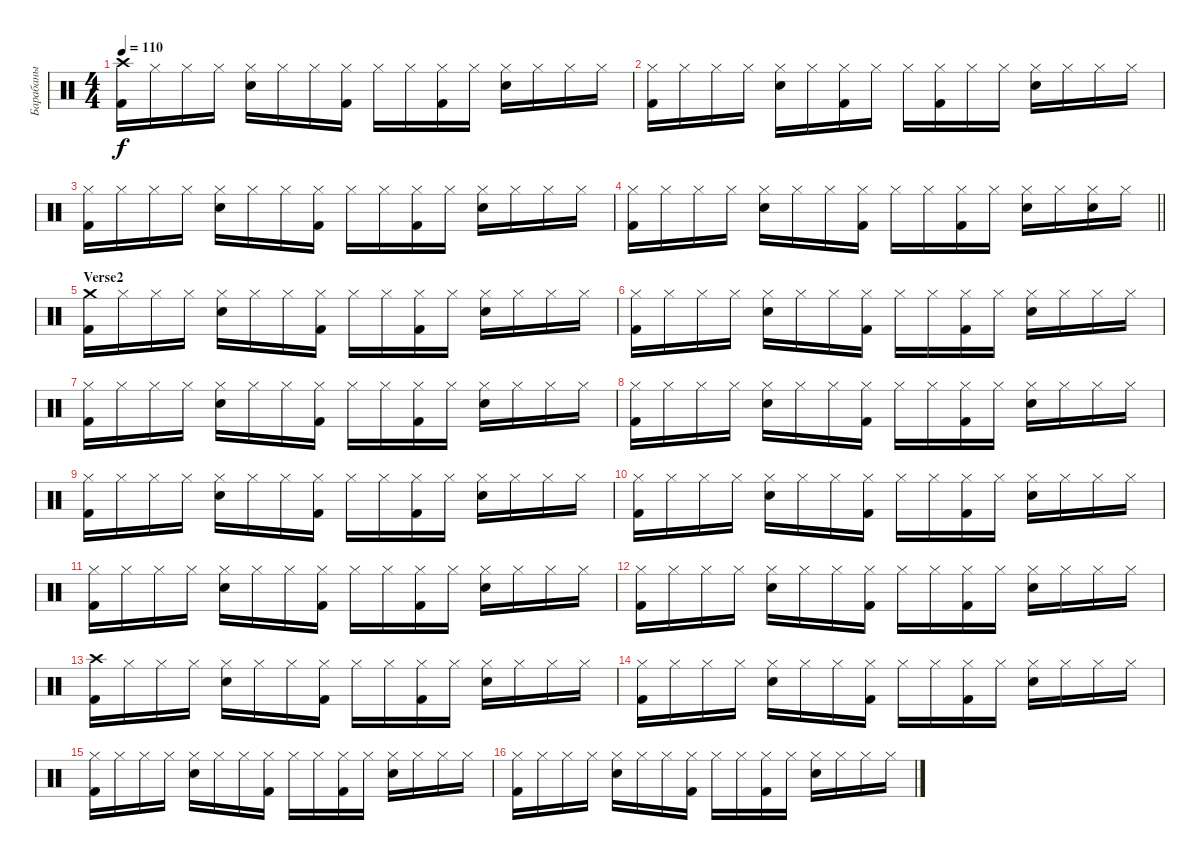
\track ("Барабаны" "Барабаны") {instrument percussion}
\staff {score}
\articulation defaults
\ts (4 4)
\tempo 110
\clef neutral
\ks c
("Crash high (hit)" "Kick (hit) 2").16{dy f} "Hi-Hat (closed)".16 "Hi-Hat (closed)".16 "Hi-Hat (closed)".16 ("Hi-Hat (closed)" "Snare (hit) 2").16 "Hi-Hat (closed)".16 "Hi-Hat (closed)".16 ("Hi-Hat (closed)" "Kick (hit) 2").16 "Hi-Hat (closed)".16 "Hi-Hat (closed)".16 ("Hi-Hat (closed)" "Kick (hit) 2").16 "Hi-Hat (closed)".16 ("Hi-Hat (closed)" "Snare (hit) 2").16 "Hi-Hat (closed)".16 "Hi-Hat (closed)".16 "Hi-Hat (closed)".16 |
("Hi-Hat (closed)" "Kick (hit) 2").16 "Hi-Hat (closed)".16 "Hi-Hat (closed)".16 "Hi-Hat (closed)".16 ("Hi-Hat (closed)" "Snare (hit) 2").16 "Hi-Hat (closed)".16 ("Hi-Hat (closed)" "Kick (hit) 2").16 "Hi-Hat (closed)".16 "Hi-Hat (closed)".16 ("Hi-Hat (closed)" "Kick (hit) 2").16 "Hi-Hat (closed)".16 "Hi-Hat (closed)".16 ("Hi-Hat (closed)" "Snare (hit) 2").16 "Hi-Hat (closed)".16 "Hi-Hat (closed)".16 "Hi-Hat (closed)".16 |
("Hi-Hat (closed)" "Kick (hit) 2").16 "Hi-Hat (closed)".16 "Hi-Hat (closed)".16 "Hi-Hat (closed)".16 ("Hi-Hat (closed)" "Snare (hit) 2").16 "Hi-Hat (closed)".16 "Hi-Hat (closed)".16 ("Hi-Hat (closed)" "Kick (hit) 2").16 "Hi-Hat (closed)".16 "Hi-Hat (closed)".16 ("Hi-Hat (closed)" "Kick (hit) 2").16 "Hi-Hat (closed)".16 ("Hi-Hat (closed)" "Snare (hit) 2").16 "Hi-Hat (closed)".16 "Hi-Hat (closed)".16 "Hi-Hat (closed)".16 |
\barLineRight lightlight
("Hi-Hat (closed)" "Kick (hit) 2").16 "Hi-Hat (closed)".16 "Hi-Hat (closed)".16 "Hi-Hat (closed)".16 ("Hi-Hat (closed)" "Snare (hit) 2").16 "Hi-Hat (closed)".16 "Hi-Hat (closed)".16 ("Hi-Hat (closed)" "Kick (hit) 2").16 "Hi-Hat (closed)".16 "Hi-Hat (closed)".16 ("Hi-Hat (closed)" "Kick (hit) 2").16 "Hi-Hat (closed)".16 ("Hi-Hat (closed)" "Snare (hit) 2").16 "Hi-Hat (closed)".16 ("Hi-Hat (closed)" "Snare (hit) 2").16 "Hi-Hat (closed)".16 |
\section ("" "Verse2")
("Crash medium (hit)" "Kick (hit) 2").16 "Hi-Hat (closed)".16 "Hi-Hat (closed)".16 "Hi-Hat (closed)".16 ("Hi-Hat (closed)" "Snare (hit) 2").16 "Hi-Hat (closed)".16 "Hi-Hat (closed)".16 ("Hi-Hat (closed)" "Kick (hit) 2").16 "Hi-Hat (closed)".16 "Hi-Hat (closed)".16 ("Hi-Hat (closed)" "Kick (hit) 2").16 "Hi-Hat (closed)".16 ("Hi-Hat (closed)" "Snare (hit) 2").16 "Hi-Hat (closed)".16 "Hi-Hat (closed)".16 "Hi-Hat (closed)".16 |
("Hi-Hat (closed)" "Kick (hit) 2").16 "Hi-Hat (closed)".16 "Hi-Hat (closed)".16 "Hi-Hat (closed)".16 ("Hi-Hat (closed)" "Snare (hit) 2").16 "Hi-Hat (closed)".16 "Hi-Hat (closed)".16 ("Hi-Hat (closed)" "Kick (hit) 2").16 "Hi-Hat (closed)".16 "Hi-Hat (closed)".16 ("Hi-Hat (closed)" "Kick (hit) 2").16 "Hi-Hat (closed)".16 ("Hi-Hat (closed)" "Snare (hit) 2").16 "Hi-Hat (closed)".16 "Hi-Hat (closed)".16 "Hi-Hat (closed)".16 |
("Hi-Hat (closed)" "Kick (hit) 2").16 "Hi-Hat (closed)".16 "Hi-Hat (closed)".16 "Hi-Hat (closed)".16 ("Hi-Hat (closed)" "Snare (hit) 2").16 "Hi-Hat (closed)".16 "Hi-Hat (closed)".16 ("Hi-Hat (closed)" "Kick (hit) 2").16 "Hi-Hat (closed)".16 "Hi-Hat (closed)".16 ("Hi-Hat (closed)" "Kick (hit) 2").16 "Hi-Hat (closed)".16 ("Hi-Hat (closed)" "Snare (hit) 2").16 "Hi-Hat (closed)".16 "Hi-Hat (closed)".16 "Hi-Hat (closed)".16 |
("Hi-Hat (closed)" "Kick (hit) 2").16 "Hi-Hat (closed)".16 "Hi-Hat (closed)".16 "Hi-Hat (closed)".16 ("Hi-Hat (closed)" "Snare (hit) 2").16 "Hi-Hat (closed)".16 "Hi-Hat (closed)".16 ("Hi-Hat (closed)" "Kick (hit) 2").16 "Hi-Hat (closed)".16 "Hi-Hat (closed)".16 ("Hi-Hat (closed)" "Kick (hit) 2").16 "Hi-Hat (closed)".16 ("Hi-Hat (closed)" "Snare (hit) 2").16 "Hi-Hat (closed)".16 "Hi-Hat (closed)".16 "Hi-Hat (closed)".16 |
("Hi-Hat (closed)" "Kick (hit) 2").16 "Hi-Hat (closed)".16 "Hi-Hat (closed)".16 "Hi-Hat (closed)".16 ("Hi-Hat (closed)" "Snare (hit) 2").16 "Hi-Hat (closed)".16 "Hi-Hat (closed)".16 ("Hi-Hat (closed)" "Kick (hit) 2").16 "Hi-Hat (closed)".16 "Hi-Hat (closed)".16 ("Hi-Hat (closed)" "Kick (hit) 2").16 "Hi-Hat (closed)".16 ("Hi-Hat (closed)" "Snare (hit) 2").16 "Hi-Hat (closed)".16 "Hi-Hat (closed)".16 "Hi-Hat (closed)".16 |
("Hi-Hat (closed)" "Kick (hit) 2").16 "Hi-Hat (closed)".16 "Hi-Hat (closed)".16 "Hi-Hat (closed)".16 ("Hi-Hat (closed)" "Snare (hit) 2").16 "Hi-Hat (closed)".16 "Hi-Hat (closed)".16 ("Hi-Hat (closed)" "Kick (hit) 2").16 "Hi-Hat (closed)".16 "Hi-Hat (closed)".16 ("Hi-Hat (closed)" "Kick (hit) 2").16 "Hi-Hat (closed)".16 ("Hi-Hat (closed)" "Snare (hit) 2").16 "Hi-Hat (closed)".16 "Hi-Hat (closed)".16 "Hi-Hat (closed)".16 |
("Hi-Hat (closed)" "Kick (hit) 2").16 "Hi-Hat (closed)".16 "Hi-Hat (closed)".16 "Hi-Hat (closed)".16 ("Hi-Hat (closed)" "Snare (hit) 2").16 "Hi-Hat (closed)".16 "Hi-Hat (closed)".16 ("Hi-Hat (closed)" "Kick (hit) 2").16 "Hi-Hat (closed)".16 "Hi-Hat (closed)".16 ("Hi-Hat (closed)" "Kick (hit) 2").16 "Hi-Hat (closed)".16 ("Hi-Hat (closed)" "Snare (hit) 2").16 "Hi-Hat (closed)".16 "Hi-Hat (closed)".16 "Hi-Hat (closed)".16 |
("Hi-Hat (closed)" "Kick (hit) 2").16 "Hi-Hat (closed)".16 "Hi-Hat (closed)".16 "Hi-Hat (closed)".16 ("Hi-Hat (closed)" "Snare (hit) 2").16 "Hi-Hat (closed)".16 "Hi-Hat (closed)".16 ("Hi-Hat (closed)" "Kick (hit) 2").16 "Hi-Hat (closed)".16 "Hi-Hat (closed)".16 ("Hi-Hat (closed)" "Kick (hit) 2").16 "Hi-Hat (closed)".16 ("Hi-Hat (closed)" "Snare (hit) 2").16 "Hi-Hat (closed)".16 "Hi-Hat (closed)".16 "Hi-Hat (closed)".16 |
("Crash high (hit)" "Kick (hit) 2").16 "Hi-Hat (closed)".16 "Hi-Hat (closed)".16 "Hi-Hat (closed)".16 ("Hi-Hat (closed)" "Snare (hit) 2").16 "Hi-Hat (closed)".16 "Hi-Hat (closed)".16 ("Hi-Hat (closed)" "Kick (hit) 2").16 "Hi-Hat (closed)".16 "Hi-Hat (closed)".16 ("Hi-Hat (closed)" "Kick (hit) 2").16 "Hi-Hat (closed)".16 ("Hi-Hat (closed)" "Snare (hit) 2").16 "Hi-Hat (closed)".16 "Hi-Hat (closed)".16 "Hi-Hat (closed)".16 |
("Hi-Hat (closed)" "Kick (hit) 2").16 "Hi-Hat (closed)".16 "Hi-Hat (closed)".16 "Hi-Hat (closed)".16 ("Hi-Hat (closed)" "Snare (hit) 2").16 "Hi-Hat (closed)".16 "Hi-Hat (closed)".16 ("Hi-Hat (closed)" "Kick (hit) 2").16 "Hi-Hat (closed)".16 "Hi-Hat (closed)".16 ("Hi-Hat (closed)" "Kick (hit) 2").16 "Hi-Hat (closed)".16 ("Hi-Hat (closed)" "Snare (hit) 2").16 "Hi-Hat (closed)".16 "Hi-Hat (closed)".16 "Hi-Hat (closed)".16 |
("Hi-Hat (closed)" "Kick (hit) 2").16 "Hi-Hat (closed)".16 "Hi-Hat (closed)".16 "Hi-Hat (closed)".16 ("Hi-Hat (closed)" "Snare (hit) 2").16 "Hi-Hat (closed)".16 "Hi-Hat (closed)".16 ("Hi-Hat (closed)" "Kick (hit) 2").16 "Hi-Hat (closed)".16 "Hi-Hat (closed)".16 ("Hi-Hat (closed)" "Kick (hit) 2").16 "Hi-Hat (closed)".16 ("Hi-Hat (closed)" "Snare (hit) 2").16 "Hi-Hat (closed)".16 "Hi-Hat (closed)".16 "Hi-Hat (closed)".16 |
("Hi-Hat (closed)" "Kick (hit) 2").16 "Hi-Hat (closed)".16 "Hi-Hat (closed)".16 "Hi-Hat (closed)".16 ("Hi-Hat (closed)" "Snare (hit) 2").16 "Hi-Hat (closed)".16 "Hi-Hat (closed)".16 ("Hi-Hat (closed)" "Kick (hit) 2").16 "Hi-Hat (closed)".16 "Hi-Hat (closed)".16 ("Hi-Hat (closed)" "Kick (hit) 2").16 "Hi-Hat (closed)".16 ("Hi-Hat (closed)" "Snare (hit) 2").16 "Hi-Hat (closed)".16 "Hi-Hat (closed)".16 "Hi-Hat (closed)".16
